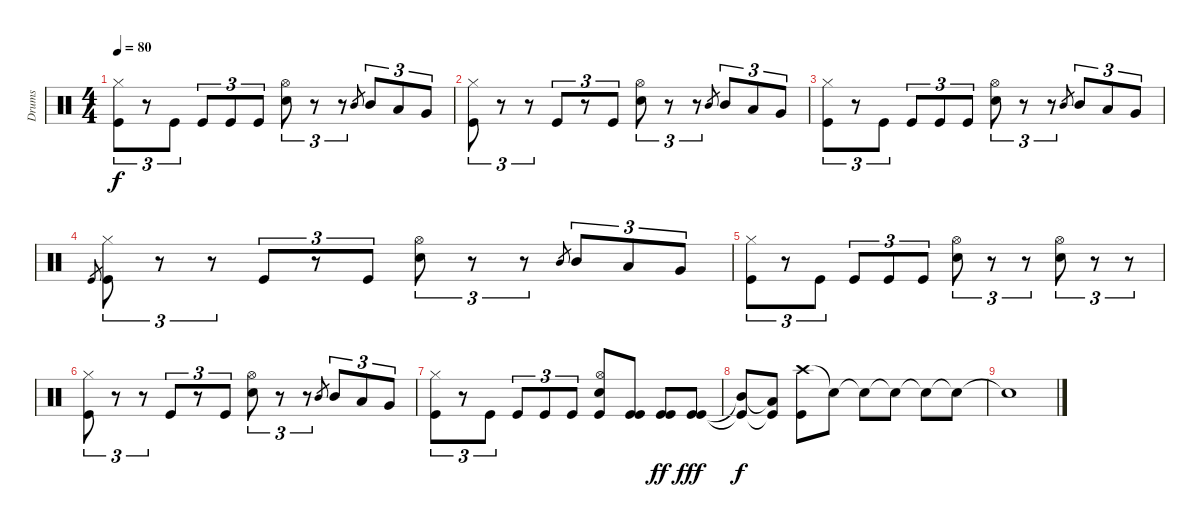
\track ("Drums" "Drums") {instrument percussion}
\staff {score}
\articulation defaults
\ts (4 4)
\tempo 80
\clef neutral
\ks c
("Hi-Hat (closed)" "Kick (hit)").8{tu (3 2) dy f} r.8{tu (3 2)} "Kick (hit)".8{tu (3 2)} "Kick (hit)".8{tu (3 2)} "Kick (hit)".8{tu (3 2)} "Kick (hit)".8{tu (3 2)} ("Hi-Hat (open)" "Snare (hit) 2").8{tu (3 2)} r.8{tu (3 2)} r.8{tu (3 2)} "Mid Tom (hit)".8{gr} "Mid Tom (hit)".8{tu (3 2)} "Low Tom (hit)".8{tu (3 2)} "Very Low Tom (hit)".8{tu (3 2)} |
("Hi-Hat (closed)" "Kick (hit)").8{tu (3 2)} r.8{tu (3 2)} r.8{tu (3 2)} "Kick (hit)".8{tu (3 2)} r.8{tu (3 2)} "Kick (hit)".8{tu (3 2)} ("Hi-Hat (open)" "Snare (hit) 2").8{tu (3 2)} r.8{tu (3 2)} r.8{tu (3 2)} "Mid Tom (hit)".8{gr} "Mid Tom (hit)".8{tu (3 2)} "Low Tom (hit)".8{tu (3 2)} "Very Low Tom (hit)".8{tu (3 2)} |
("Hi-Hat (closed)" "Kick (hit)").8{tu (3 2)} r.8{tu (3 2)} "Kick (hit)".8{tu (3 2)} "Kick (hit)".8{tu (3 2)} "Kick (hit)".8{tu (3 2)} "Kick (hit)".8{tu (3 2)} ("Hi-Hat (open)" "Snare (hit) 2").8{tu (3 2)} r.8{tu (3 2)} r.8{tu (3 2)} "Mid Tom (hit)".8{gr} "Mid Tom (hit)".8{tu (3 2)} "Low Tom (hit)".8{tu (3 2)} "Very Low Tom (hit)".8{tu (3 2)} |
"Kick (hit)".8{gr} ("Hi-Hat (closed)" "Kick (hit)").8{tu (3 2)} r.8{tu (3 2)} r.8{tu (3 2)} "Kick (hit)".8{tu (3 2)} r.8{tu (3 2)} "Kick (hit)".8{tu (3 2)} ("Hi-Hat (open)" "Snare (hit) 2").8{tu (3 2)} r.8{tu (3 2)} r.8{tu (3 2)} "Mid Tom (hit)".8{gr} "Mid Tom (hit)".8{tu (3 2)} "Low Tom (hit)".8{tu (3 2)} "Very Low Tom (hit)".8{tu (3 2)} |
("Hi-Hat (closed)" "Kick (hit)").8{tu (3 2)} r.8{tu (3 2)} "Kick (hit)".8{tu (3 2)} "Kick (hit)".8{tu (3 2)} "Kick (hit)".8{tu (3 2)} "Kick (hit)".8{tu (3 2)} ("Hi-Hat (open)" "Snare (hit) 2").8{tu (3 2)} r.8{tu (3 2)} r.8{tu (3 2)} ("Hi-Hat (open)" "Snare (hit) 2").8{tu (3 2)} r.8{tu (3 2)} r.8{tu (3 2)} |
("Hi-Hat (closed)" "Kick (hit)").8{tu (3 2)} r.8{tu (3 2)} r.8{tu (3 2)} "Kick (hit)".8{tu (3 2)} r.8{tu (3 2)} "Kick (hit)".8{tu (3 2)} ("Hi-Hat (open)" "Snare (hit) 2").8{tu (3 2)} r.8{tu (3 2)} r.8{tu (3 2)} "Mid Tom (hit)".8{gr} "Mid Tom (hit)".8{tu (3 2)} "Low Tom (hit)".8{tu (3 2)} "Very Low Tom (hit)".8{tu (3 2)} |
("Hi-Hat (closed)" "Kick (hit)").8{tu (3 2)} r.8{tu (3 2)} "Kick (hit)".8{tu (3 2)} "Kick (hit)".8{tu (3 2)} "Kick (hit)".8{tu (3 2)} "Kick (hit)".8{tu (3 2)} ("Hi-Hat (open)" "Snare (hit) 2" "Kick (hit)").8 ("Kick (hit)" "Kick (hit)").8 ("Kick (hit)" "Kick (hit)").8{dy ff} ("Kick (hit)" "Kick (hit)").8{dy fff} |
("Mid Tom (hit)"{t} "Kick (hit)"{t}).8{dy f} ("Low Tom (hit)"{t} "Kick (hit)"{t}).8 ("Crash high (hit)" "Kick (hit)").8 "Snare (hit)"{t}.8 "Snare (hit)"{t}.8 "Snare (hit)"{t}.8 "Snare (hit)"{t}.8 "Snare (hit)"{t}.8 |
"Snare (hit)"{t}.1
